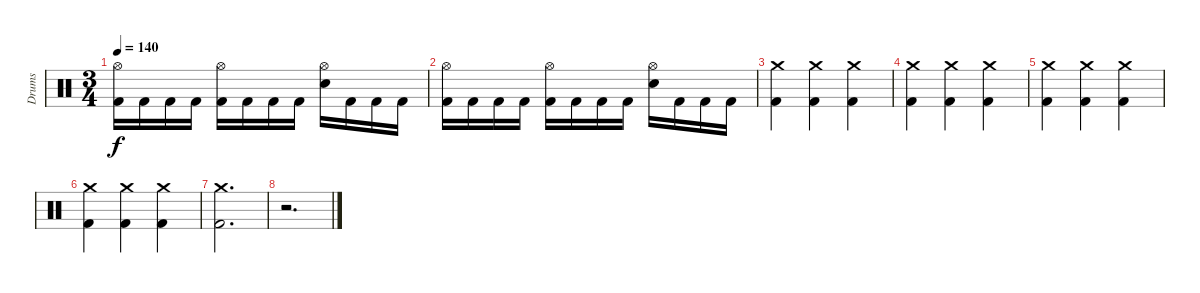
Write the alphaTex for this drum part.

\track ("Drums" "Drums") {instrument percussion}
\staff {score}
\articulation defaults
\ts (3 4)
\tempo 140
\clef neutral
\ks c
("Kick (hit) 2" "Hi-Hat (open)").16{dy f} "Kick (hit) 2".16 "Kick (hit) 2".16 "Kick (hit) 2".16 ("Kick (hit) 2" "Hi-Hat (open)").16 "Kick (hit) 2".16 "Kick (hit) 2".16 "Kick (hit) 2".16 ("Electric Snare (hit)" "Hi-Hat (open)").16 "Kick (hit) 2".16 "Kick (hit) 2".16 "Kick (hit) 2".16 |
("Kick (hit) 2" "Hi-Hat (open)").16 "Kick (hit) 2".16 "Kick (hit) 2".16 "Kick (hit) 2".16 ("Kick (hit) 2" "Hi-Hat (open)").16 "Kick (hit) 2".16 "Kick (hit) 2".16 "Kick (hit) 2".16 ("Electric Snare (hit)" "Hi-Hat (open)").16 "Kick (hit) 2".16 "Kick (hit) 2".16 "Kick (hit) 2".16 |
("Kick (hit) 2" "Crash medium (hit)").4 ("Kick (hit) 2" "Crash medium (hit)").4 ("Kick (hit) 2" "Crash medium (hit)").4 |
("Kick (hit) 2" "Crash medium (hit)").4 ("Kick (hit) 2" "Crash medium (hit)").4 ("Kick (hit) 2" "Crash medium (hit)").4 |
("Kick (hit) 2" "Crash medium (hit)").4 ("Kick (hit) 2" "Crash medium (hit)").4 ("Kick (hit) 2" "Crash medium (hit)").4 |
("Kick (hit) 2" "Crash medium (hit)").4 ("Kick (hit) 2" "Crash medium (hit)").4 ("Kick (hit) 2" "Crash medium (hit)").4 |
("Kick (hit) 2" "Crash medium (hit)").2{d} |
r.2{d}
